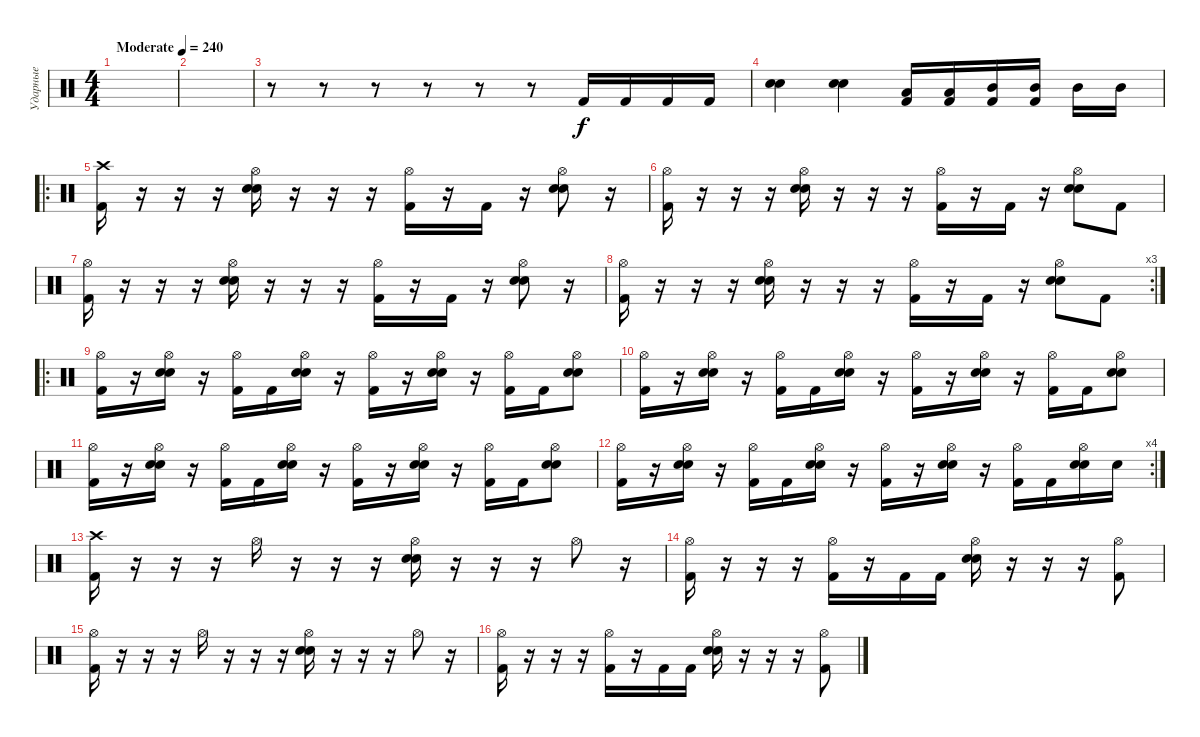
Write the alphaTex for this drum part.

\track ("Ударные" "Ударные") {instrument percussion}
\staff {score}
\articulation defaults
\ts (4 4)
\tempo (240 "Moderate")
\clef neutral
\ks c
|
|
r.8 r.8 r.8 r.8 r.8 r.8 "Kick (hit) 2".16 "Kick (hit) 2".16 "Kick (hit) 2".16 "Kick (hit) 2".16 |
("Electric Snare (hit)" "Snare (hit) 2").4 ("Electric Snare (hit)" "Snare (hit) 2").4 ("Low Tom (hit)" "Kick (hit) 2").16 ("Low Tom (hit)" "Kick (hit) 2").16 ("Mid Tom (hit)" "Kick (hit) 2").16 ("Mid Tom (hit)" "Kick (hit) 2").16 "Mid Tom (hit)".16 "Mid Tom (hit)".16 |
\ro
("Crash high (hit)" "Kick (hit) 2").16 r.16 r.16 r.16 ("Hi-Hat (open)" "Electric Snare (hit)" "Snare (hit) 2").16 r.16 r.16 r.16 ("Hi-Hat (open)" "Kick (hit) 2").16 r.16 "Kick (hit) 2".16 r.16 ("Hi-Hat (open)" "Electric Snare (hit)" "Snare (hit) 2").8 r.16 |
("Hi-Hat (open)" "Kick (hit) 2").16 r.16 r.16 r.16 ("Hi-Hat (open)" "Electric Snare (hit)" "Snare (hit) 2").16 r.16 r.16 r.16 ("Hi-Hat (open)" "Kick (hit) 2").16 r.16 "Kick (hit) 2".16 r.16 ("Hi-Hat (open)" "Electric Snare (hit)" "Snare (hit) 2").8 "Kick (hit) 2".8 |
("Hi-Hat (open)" "Kick (hit) 2").16 r.16 r.16 r.16 ("Hi-Hat (open)" "Electric Snare (hit)" "Snare (hit) 2").16 r.16 r.16 r.16 ("Hi-Hat (open)" "Kick (hit) 2").16 r.16 "Kick (hit) 2".16 r.16 ("Hi-Hat (open)" "Electric Snare (hit)" "Snare (hit) 2").8 r.16 |
\rc 3
("Hi-Hat (open)" "Kick (hit) 2").16 r.16 r.16 r.16 ("Hi-Hat (open)" "Electric Snare (hit)" "Snare (hit) 2").16 r.16 r.16 r.16 ("Hi-Hat (open)" "Kick (hit) 2").16 r.16 "Kick (hit) 2".16 r.16 ("Hi-Hat (open)" "Electric Snare (hit)" "Snare (hit) 2").8 "Kick (hit) 2".8 |
\ro
("Hi-Hat (open)" "Kick (hit) 2").16 r.16 ("Hi-Hat (open)" "Electric Snare (hit)" "Snare (hit) 2").16 r.16 ("Hi-Hat (open)" "Kick (hit) 2").16 "Kick (hit) 2".16 ("Hi-Hat (open)" "Electric Snare (hit)" "Snare (hit) 2").16 r.16 ("Hi-Hat (open)" "Kick (hit) 2").16 r.16 ("Hi-Hat (open)" "Electric Snare (hit)" "Snare (hit) 2").16 r.16 ("Hi-Hat (open)" "Kick (hit) 2").16 "Kick (hit) 2".16 ("Hi-Hat (open)" "Electric Snare (hit)" "Snare (hit) 2").8 |
("Hi-Hat (open)" "Kick (hit) 2").16 r.16 ("Hi-Hat (open)" "Electric Snare (hit)" "Snare (hit) 2").16 r.16 ("Hi-Hat (open)" "Kick (hit) 2").16 "Kick (hit) 2".16 ("Hi-Hat (open)" "Electric Snare (hit)" "Snare (hit) 2").16 r.16 ("Hi-Hat (open)" "Kick (hit) 2").16 r.16 ("Hi-Hat (open)" "Electric Snare (hit)" "Snare (hit) 2").16 r.16 ("Hi-Hat (open)" "Kick (hit) 2").16 "Kick (hit) 2".16 ("Hi-Hat (open)" "Electric Snare (hit)" "Snare (hit) 2").8 |
("Hi-Hat (open)" "Kick (hit) 2").16 r.16 ("Hi-Hat (open)" "Electric Snare (hit)" "Snare (hit) 2").16 r.16 ("Hi-Hat (open)" "Kick (hit) 2").16 "Kick (hit) 2".16 ("Hi-Hat (open)" "Electric Snare (hit)" "Snare (hit) 2").16 r.16 ("Hi-Hat (open)" "Kick (hit) 2").16 r.16 ("Hi-Hat (open)" "Electric Snare (hit)" "Snare (hit) 2").16 r.16 ("Hi-Hat (open)" "Kick (hit) 2").16 "Kick (hit) 2".16 ("Hi-Hat (open)" "Electric Snare (hit)" "Snare (hit) 2").8 |
\rc 4
("Hi-Hat (open)" "Kick (hit) 2").16 r.16 ("Hi-Hat (open)" "Electric Snare (hit)" "Snare (hit) 2").16 r.16 ("Hi-Hat (open)" "Kick (hit) 2").16 "Kick (hit) 2".16 ("Hi-Hat (open)" "Electric Snare (hit)" "Snare (hit) 2").16 r.16 ("Hi-Hat (open)" "Kick (hit) 2").16 r.16 ("Hi-Hat (open)" "Electric Snare (hit)" "Snare (hit) 2").16 r.16 ("Hi-Hat (open)" "Kick (hit) 2").16 "Kick (hit) 2".16 ("Hi-Hat (open)" "Electric Snare (hit)" "Snare (hit) 2").16 "Electric Snare (hit)".16 |
("Crash high (hit)" "Kick (hit) 2").16 r.16 r.16 r.16 "Hi-Hat (open)".16 r.16 r.16 r.16 ("Hi-Hat (open)" "Electric Snare (hit)" "Snare (hit) 2").16 r.16 r.16 r.16 "Hi-Hat (open)".8 r.16 |
("Hi-Hat (open)" "Kick (hit) 2").16 r.16 r.16 r.16 ("Hi-Hat (open)" "Kick (hit) 2").16 r.16 "Kick (hit) 2".16 "Kick (hit) 2".16 ("Hi-Hat (open)" "Electric Snare (hit)" "Snare (hit) 2").16 r.16 r.16 r.16 ("Hi-Hat (open)" "Kick (hit) 2").8 |
("Hi-Hat (open)" "Kick (hit) 2").16 r.16 r.16 r.16 "Hi-Hat (open)".16 r.16 r.16 r.16 ("Hi-Hat (open)" "Electric Snare (hit)" "Snare (hit) 2").16 r.16 r.16 r.16 "Hi-Hat (open)".8 r.16 |
("Hi-Hat (open)" "Kick (hit) 2").16 r.16 r.16 r.16 ("Hi-Hat (open)" "Kick (hit) 2").16 r.16 "Kick (hit) 2".16 "Kick (hit) 2".16 ("Hi-Hat (open)" "Electric Snare (hit)" "Snare (hit) 2").16 r.16 r.16 r.16 ("Hi-Hat (open)" "Kick (hit) 2").8
